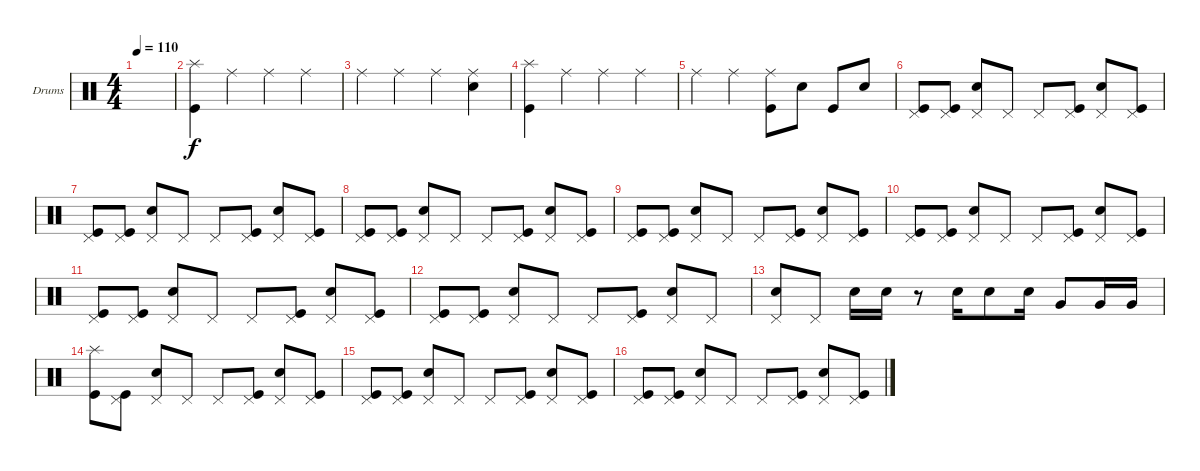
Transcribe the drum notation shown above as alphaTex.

\defaultSystemsLayout 4
\bracketExtendMode groupsimilarinstruments
\firstSystemTrackNameOrientation horizontal
\otherSystemsTrackNameOrientation horizontal
\track ("Drumkit" "Drums") {instrument percussion}
\staff {score}
\articulation defaults
\ts (4 4)
\tempo 110
\clef neutral
\ks c
|
("Kick (hit)" "Splash (hit)").4 "Ride (middle)".4 "Ride (middle)".4 "Ride (middle)".4 |
"Ride (middle)".4 "Ride (middle)".4 "Ride (middle)".4 ("Ride (middle)" "Snare (hit) 2").4 |
("Kick (hit)" "Splash (hit)").4 "Ride (middle)".4 "Ride (middle)".4 "Ride (middle)".4 |
"Ride (middle)".4 "Ride (middle)".4 ("Kick (hit)" "Ride (middle)").8 "Snare (hit) 2".8 "Kick (hit)".8 "Snare (hit) 2".8 |
("Pedal Hi-Hat (hit)" "Kick (hit)").8 ("Pedal Hi-Hat (hit)" "Kick (hit)").8 ("Pedal Hi-Hat (hit)" "Snare (hit) 2").8 "Pedal Hi-Hat (hit)".8 "Pedal Hi-Hat (hit)".8 ("Pedal Hi-Hat (hit)" "Kick (hit)").8 ("Pedal Hi-Hat (hit)" "Snare (hit) 2").8 ("Pedal Hi-Hat (hit)" "Kick (hit)").8 |
("Pedal Hi-Hat (hit)" "Kick (hit)").8 ("Pedal Hi-Hat (hit)" "Kick (hit)").8 ("Pedal Hi-Hat (hit)" "Snare (hit) 2").8 "Pedal Hi-Hat (hit)".8 "Pedal Hi-Hat (hit)".8 ("Pedal Hi-Hat (hit)" "Kick (hit)").8 ("Pedal Hi-Hat (hit)" "Snare (hit) 2").8 ("Pedal Hi-Hat (hit)" "Kick (hit)").8 |
("Pedal Hi-Hat (hit)" "Kick (hit)").8 ("Pedal Hi-Hat (hit)" "Kick (hit)").8 ("Pedal Hi-Hat (hit)" "Snare (hit) 2").8 "Pedal Hi-Hat (hit)".8 "Pedal Hi-Hat (hit)".8 ("Pedal Hi-Hat (hit)" "Kick (hit)").8 ("Pedal Hi-Hat (hit)" "Snare (hit) 2").8 ("Pedal Hi-Hat (hit)" "Kick (hit)").8 |
("Pedal Hi-Hat (hit)" "Kick (hit)").8 ("Pedal Hi-Hat (hit)" "Kick (hit)").8 ("Pedal Hi-Hat (hit)" "Snare (hit) 2").8 "Pedal Hi-Hat (hit)".8 "Pedal Hi-Hat (hit)".8 ("Pedal Hi-Hat (hit)" "Kick (hit)").8 ("Pedal Hi-Hat (hit)" "Snare (hit) 2").8 ("Pedal Hi-Hat (hit)" "Kick (hit)").8 |
("Pedal Hi-Hat (hit)" "Kick (hit)").8 ("Pedal Hi-Hat (hit)" "Kick (hit)").8 ("Pedal Hi-Hat (hit)" "Snare (hit) 2").8 "Pedal Hi-Hat (hit)".8 "Pedal Hi-Hat (hit)".8 ("Pedal Hi-Hat (hit)" "Kick (hit)").8 ("Pedal Hi-Hat (hit)" "Snare (hit) 2").8 ("Pedal Hi-Hat (hit)" "Kick (hit)").8 |
("Pedal Hi-Hat (hit)" "Kick (hit)").8 ("Pedal Hi-Hat (hit)" "Kick (hit)").8 ("Pedal Hi-Hat (hit)" "Snare (hit) 2").8 "Pedal Hi-Hat (hit)".8 "Pedal Hi-Hat (hit)".8 ("Pedal Hi-Hat (hit)" "Kick (hit)").8 ("Pedal Hi-Hat (hit)" "Snare (hit) 2").8 ("Pedal Hi-Hat (hit)" "Kick (hit)").8 |
("Pedal Hi-Hat (hit)" "Kick (hit)").8 ("Pedal Hi-Hat (hit)" "Kick (hit)").8 ("Pedal Hi-Hat (hit)" "Snare (hit) 2").8 "Pedal Hi-Hat (hit)".8 "Pedal Hi-Hat (hit)".8 ("Pedal Hi-Hat (hit)" "Kick (hit)").8 ("Pedal Hi-Hat (hit)" "Snare (hit) 2").8 "Pedal Hi-Hat (hit)".8 |
("Pedal Hi-Hat (hit)" "Snare (hit) 2").8 "Pedal Hi-Hat (hit)".8 "Snare (hit) 2".16 "Snare (hit) 2".16 r.8 "Snare (hit) 2".16 "Snare (hit) 2".8 "Snare (hit) 2".16 "Very Low Tom (hit)".8 "Very Low Tom (hit)".16 "Very Low Tom (hit)".16 |
("Kick (hit)" "Splash (hit)").8 ("Pedal Hi-Hat (hit)" "Kick (hit)").8 ("Pedal Hi-Hat (hit)" "Snare (hit) 2").8 "Pedal Hi-Hat (hit)".8 "Pedal Hi-Hat (hit)".8 ("Pedal Hi-Hat (hit)" "Kick (hit)").8 ("Pedal Hi-Hat (hit)" "Snare (hit) 2").8 ("Pedal Hi-Hat (hit)" "Kick (hit)").8 |
("Pedal Hi-Hat (hit)" "Kick (hit)").8 ("Pedal Hi-Hat (hit)" "Kick (hit)").8 ("Pedal Hi-Hat (hit)" "Snare (hit) 2").8 "Pedal Hi-Hat (hit)".8 "Pedal Hi-Hat (hit)".8 ("Pedal Hi-Hat (hit)" "Kick (hit)").8 ("Pedal Hi-Hat (hit)" "Snare (hit) 2").8 ("Pedal Hi-Hat (hit)" "Kick (hit)").8 |
("Pedal Hi-Hat (hit)" "Kick (hit)").8 ("Pedal Hi-Hat (hit)" "Kick (hit)").8 ("Pedal Hi-Hat (hit)" "Snare (hit) 2").8 "Pedal Hi-Hat (hit)".8 "Pedal Hi-Hat (hit)".8 ("Pedal Hi-Hat (hit)" "Kick (hit)").8 ("Pedal Hi-Hat (hit)" "Snare (hit) 2").8 ("Pedal Hi-Hat (hit)" "Kick (hit)").8
